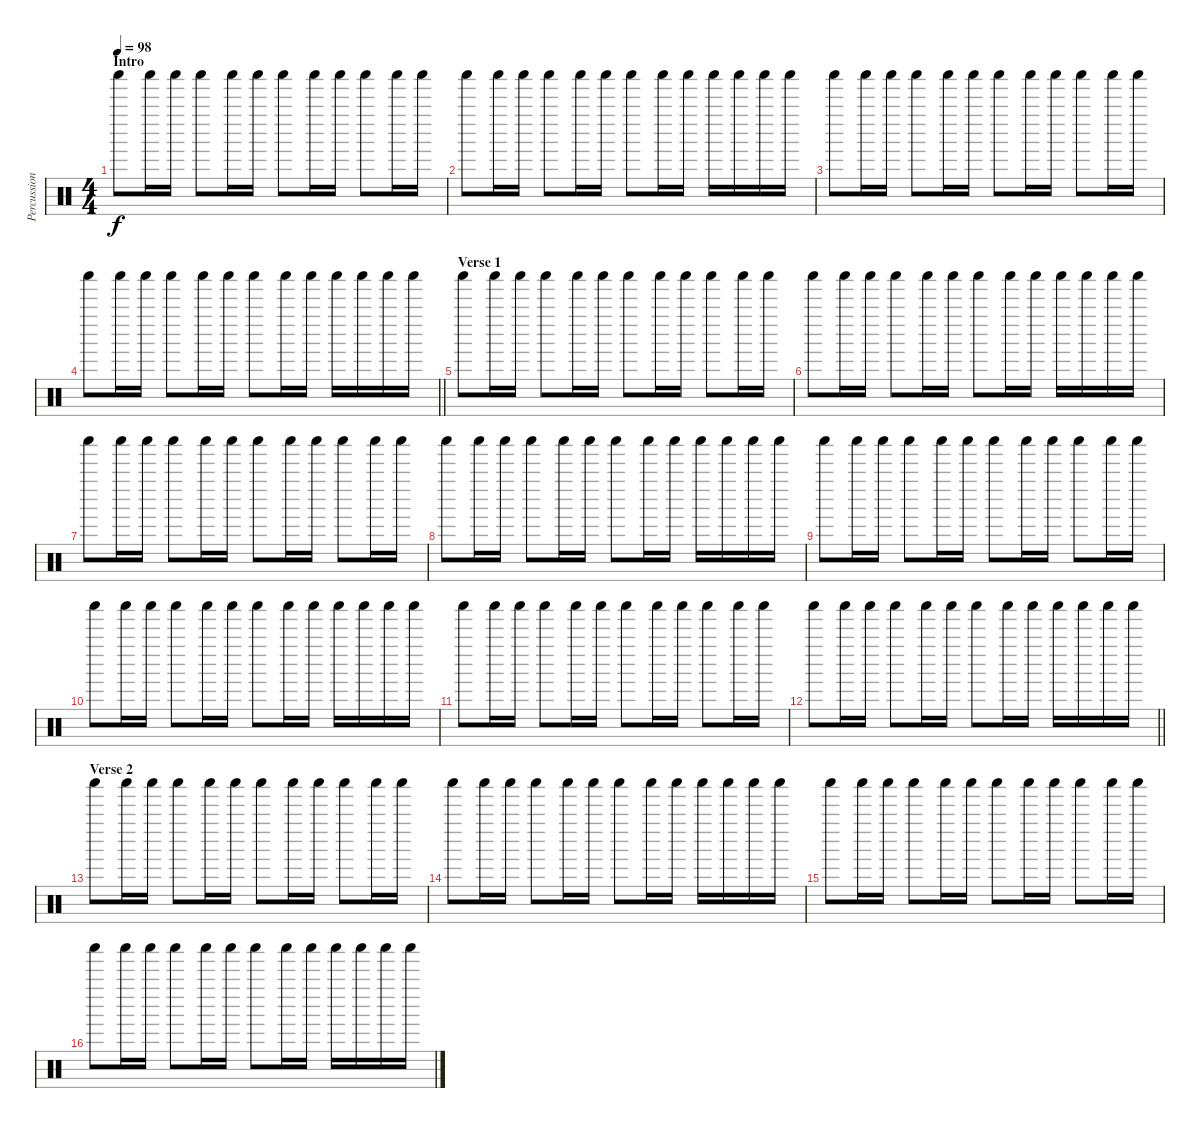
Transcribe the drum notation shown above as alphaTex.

\track ("Percussion" "Percussion") {instrument percussion}
\staff {score}
\articulation defaults
\ts (4 4)
\section ("" "Intro")
\tempo 98
\clef neutral
\ks c "Shaker (hit)".8{dy f} "Shaker (hit)".16 "Shaker (hit)".16 "Shaker (hit)".8 "Shaker (hit)".16 "Shaker (hit)".16 "Shaker (hit)".8 "Shaker (hit)".16 "Shaker (hit)".16 "Shaker (hit)".8 "Shaker (hit)".16 "Shaker (hit)".16
|
"Shaker (hit)".8 "Shaker (hit)".16 "Shaker (hit)".16 "Shaker (hit)".8 "Shaker (hit)".16 "Shaker (hit)".16 "Shaker (hit)".8 "Shaker (hit)".16 "Shaker (hit)".16 "Shaker (hit)".16 "Shaker (hit)".16 "Shaker (hit)".16 "Shaker (hit)".16 |
"Shaker (hit)".8 "Shaker (hit)".16 "Shaker (hit)".16 "Shaker (hit)".8 "Shaker (hit)".16 "Shaker (hit)".16 "Shaker (hit)".8 "Shaker (hit)".16 "Shaker (hit)".16 "Shaker (hit)".8 "Shaker (hit)".16 "Shaker (hit)".16 |
\barLineRight lightlight "Shaker (hit)".8 "Shaker (hit)".16 "Shaker (hit)".16 "Shaker (hit)".8 "Shaker (hit)".16 "Shaker (hit)".16 "Shaker (hit)".8 "Shaker (hit)".16 "Shaker (hit)".16 "Shaker (hit)".16 "Shaker (hit)".16 "Shaker (hit)".16 "Shaker (hit)".16
|
\section ("" "Verse 1")
"Shaker (hit)".8 "Shaker (hit)".16 "Shaker (hit)".16 "Shaker (hit)".8 "Shaker (hit)".16 "Shaker (hit)".16 "Shaker (hit)".8 "Shaker (hit)".16 "Shaker (hit)".16 "Shaker (hit)".8 "Shaker (hit)".16 "Shaker (hit)".16 |
"Shaker (hit)".8 "Shaker (hit)".16 "Shaker (hit)".16 "Shaker (hit)".8 "Shaker (hit)".16 "Shaker (hit)".16 "Shaker (hit)".8 "Shaker (hit)".16 "Shaker (hit)".16 "Shaker (hit)".16 "Shaker (hit)".16 "Shaker (hit)".16 "Shaker (hit)".16 |
"Shaker (hit)".8 "Shaker (hit)".16 "Shaker (hit)".16 "Shaker (hit)".8 "Shaker (hit)".16 "Shaker (hit)".16 "Shaker (hit)".8 "Shaker (hit)".16 "Shaker (hit)".16 "Shaker (hit)".8 "Shaker (hit)".16 "Shaker (hit)".16 |
"Shaker (hit)".8 "Shaker (hit)".16 "Shaker (hit)".16 "Shaker (hit)".8 "Shaker (hit)".16 "Shaker (hit)".16 "Shaker (hit)".8 "Shaker (hit)".16 "Shaker (hit)".16 "Shaker (hit)".16 "Shaker (hit)".16 "Shaker (hit)".16 "Shaker (hit)".16 |
"Shaker (hit)".8 "Shaker (hit)".16 "Shaker (hit)".16 "Shaker (hit)".8 "Shaker (hit)".16 "Shaker (hit)".16 "Shaker (hit)".8 "Shaker (hit)".16 "Shaker (hit)".16 "Shaker (hit)".8 "Shaker (hit)".16 "Shaker (hit)".16 |
"Shaker (hit)".8 "Shaker (hit)".16 "Shaker (hit)".16 "Shaker (hit)".8 "Shaker (hit)".16 "Shaker (hit)".16 "Shaker (hit)".8 "Shaker (hit)".16 "Shaker (hit)".16 "Shaker (hit)".16 "Shaker (hit)".16 "Shaker (hit)".16 "Shaker (hit)".16 |
"Shaker (hit)".8 "Shaker (hit)".16 "Shaker (hit)".16 "Shaker (hit)".8 "Shaker (hit)".16 "Shaker (hit)".16 "Shaker (hit)".8 "Shaker (hit)".16 "Shaker (hit)".16 "Shaker (hit)".8 "Shaker (hit)".16 "Shaker (hit)".16 |
\barLineRight lightlight "Shaker (hit)".8 "Shaker (hit)".16 "Shaker (hit)".16 "Shaker (hit)".8 "Shaker (hit)".16 "Shaker (hit)".16 "Shaker (hit)".8 "Shaker (hit)".16 "Shaker (hit)".16 "Shaker (hit)".16 "Shaker (hit)".16 "Shaker (hit)".16 "Shaker (hit)".16
|
\section ("" "Verse 2")
"Shaker (hit)".8 "Shaker (hit)".16 "Shaker (hit)".16 "Shaker (hit)".8 "Shaker (hit)".16 "Shaker (hit)".16 "Shaker (hit)".8 "Shaker (hit)".16 "Shaker (hit)".16 "Shaker (hit)".8 "Shaker (hit)".16 "Shaker (hit)".16 |
"Shaker (hit)".8 "Shaker (hit)".16 "Shaker (hit)".16 "Shaker (hit)".8 "Shaker (hit)".16 "Shaker (hit)".16 "Shaker (hit)".8 "Shaker (hit)".16 "Shaker (hit)".16 "Shaker (hit)".16 "Shaker (hit)".16 "Shaker (hit)".16 "Shaker (hit)".16 |
"Shaker (hit)".8 "Shaker (hit)".16 "Shaker (hit)".16 "Shaker (hit)".8 "Shaker (hit)".16 "Shaker (hit)".16 "Shaker (hit)".8 "Shaker (hit)".16 "Shaker (hit)".16 "Shaker (hit)".8 "Shaker (hit)".16 "Shaker (hit)".16 |
"Shaker (hit)".8 "Shaker (hit)".16 "Shaker (hit)".16 "Shaker (hit)".8 "Shaker (hit)".16 "Shaker (hit)".16 "Shaker (hit)".8 "Shaker (hit)".16 "Shaker (hit)".16 "Shaker (hit)".16 "Shaker (hit)".16 "Shaker (hit)".16 "Shaker (hit)".16
